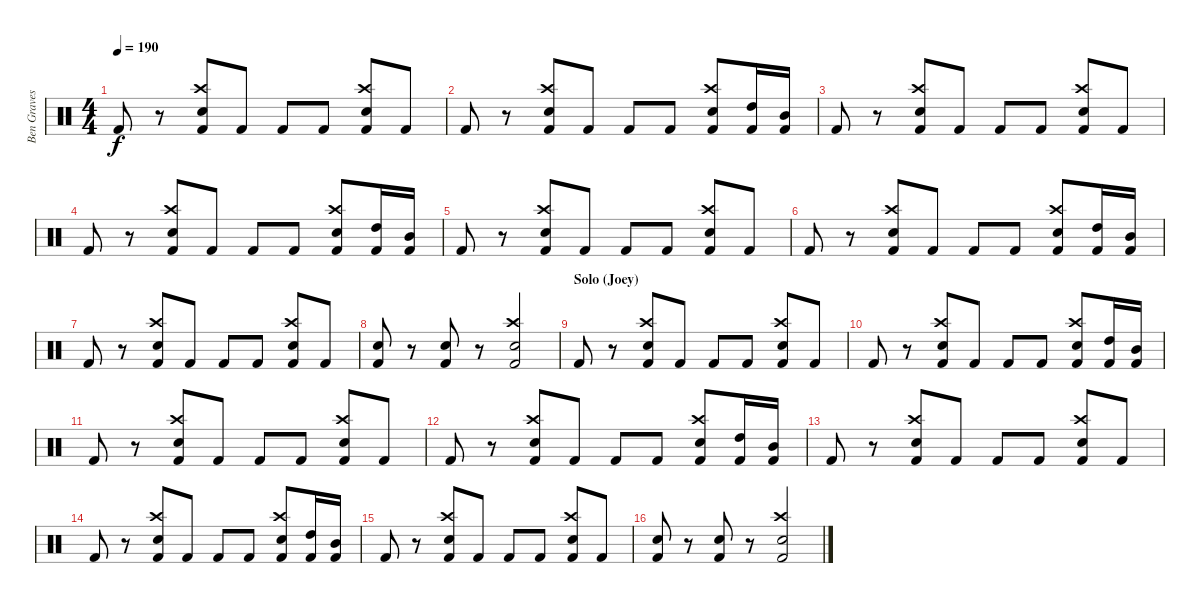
\track ("Ben Graves" "Ben Graves") {instrument percussion}
\staff {score}
\articulation defaults
\ts (4 4)
\tempo 190
\clef neutral
\ks c "Kick (hit) 2".8{dy f}
r.8 ("Crash high (hit)" "Electric Snare (hit)" "Kick (hit) 2").8 "Kick (hit) 2".8 "Kick (hit) 2".8 "Kick (hit) 2".8 ("Crash high (hit)" "Electric Snare (hit)" "Kick (hit) 2").8 "Kick (hit) 2".8 |
"Kick (hit) 2".8 r.8 ("Crash high (hit)" "Electric Snare (hit)" "Kick (hit) 2").8 "Kick (hit) 2".8 "Kick (hit) 2".8 "Kick (hit) 2".8 ("Crash high (hit)" "Electric Snare (hit)" "Kick (hit) 2").8 ("High Tom (hit)" "Kick (hit) 2").16 ("Mid Tom (hit)" "Kick (hit) 2").16 |
"Kick (hit) 2".8 r.8 ("Crash high (hit)" "Electric Snare (hit)" "Kick (hit) 2").8 "Kick (hit) 2".8 "Kick (hit) 2".8 "Kick (hit) 2".8 ("Crash high (hit)" "Electric Snare (hit)" "Kick (hit) 2").8 "Kick (hit) 2".8 |
"Kick (hit) 2".8 r.8 ("Crash high (hit)" "Electric Snare (hit)" "Kick (hit) 2").8 "Kick (hit) 2".8 "Kick (hit) 2".8 "Kick (hit) 2".8 ("Crash high (hit)" "Electric Snare (hit)" "Kick (hit) 2").8 ("High Tom (hit)" "Kick (hit) 2").16 ("Mid Tom (hit)" "Kick (hit) 2").16 |
"Kick (hit) 2".8 r.8 ("Crash high (hit)" "Electric Snare (hit)" "Kick (hit) 2").8 "Kick (hit) 2".8 "Kick (hit) 2".8 "Kick (hit) 2".8 ("Crash high (hit)" "Electric Snare (hit)" "Kick (hit) 2").8 "Kick (hit) 2".8 |
"Kick (hit) 2".8 r.8 ("Crash high (hit)" "Electric Snare (hit)" "Kick (hit) 2").8 "Kick (hit) 2".8 "Kick (hit) 2".8 "Kick (hit) 2".8 ("Crash high (hit)" "Electric Snare (hit)" "Kick (hit) 2").8 ("High Tom (hit)" "Kick (hit) 2").16 ("Mid Tom (hit)" "Kick (hit) 2").16 |
"Kick (hit) 2".8 r.8 ("Crash high (hit)" "Electric Snare (hit)" "Kick (hit) 2").8 "Kick (hit) 2".8 "Kick (hit) 2".8 "Kick (hit) 2".8 ("Crash high (hit)" "Electric Snare (hit)" "Kick (hit) 2").8 "Kick (hit) 2".8 |
("Electric Snare (hit)" "Kick (hit) 2").8 r.8 ("Electric Snare (hit)" "Kick (hit) 2").8 r.8 ("Crash high (hit)" "Electric Snare (hit)" "Kick (hit) 2").2 |
\section ("" "Solo (Joey)")
"Kick (hit) 2".8 r.8 ("Crash high (hit)" "Electric Snare (hit)" "Kick (hit) 2").8 "Kick (hit) 2".8 "Kick (hit) 2".8 "Kick (hit) 2".8 ("Crash high (hit)" "Electric Snare (hit)" "Kick (hit) 2").8 "Kick (hit) 2".8 |
"Kick (hit) 2".8 r.8 ("Crash high (hit)" "Electric Snare (hit)" "Kick (hit) 2").8 "Kick (hit) 2".8 "Kick (hit) 2".8 "Kick (hit) 2".8 ("Crash high (hit)" "Electric Snare (hit)" "Kick (hit) 2").8 ("High Tom (hit)" "Kick (hit) 2").16 ("Mid Tom (hit)" "Kick (hit) 2").16 |
"Kick (hit) 2".8 r.8 ("Crash high (hit)" "Electric Snare (hit)" "Kick (hit) 2").8 "Kick (hit) 2".8 "Kick (hit) 2".8 "Kick (hit) 2".8 ("Crash high (hit)" "Electric Snare (hit)" "Kick (hit) 2").8 "Kick (hit) 2".8 |
"Kick (hit) 2".8 r.8 ("Crash high (hit)" "Electric Snare (hit)" "Kick (hit) 2").8 "Kick (hit) 2".8 "Kick (hit) 2".8 "Kick (hit) 2".8 ("Crash high (hit)" "Electric Snare (hit)" "Kick (hit) 2").8 ("High Tom (hit)" "Kick (hit) 2").16 ("Mid Tom (hit)" "Kick (hit) 2").16 |
"Kick (hit) 2".8 r.8 ("Crash high (hit)" "Electric Snare (hit)" "Kick (hit) 2").8 "Kick (hit) 2".8 "Kick (hit) 2".8 "Kick (hit) 2".8 ("Crash high (hit)" "Electric Snare (hit)" "Kick (hit) 2").8 "Kick (hit) 2".8 |
"Kick (hit) 2".8 r.8 ("Crash high (hit)" "Electric Snare (hit)" "Kick (hit) 2").8 "Kick (hit) 2".8 "Kick (hit) 2".8 "Kick (hit) 2".8 ("Crash high (hit)" "Electric Snare (hit)" "Kick (hit) 2").8 ("High Tom (hit)" "Kick (hit) 2").16 ("Mid Tom (hit)" "Kick (hit) 2").16 |
"Kick (hit) 2".8 r.8 ("Crash high (hit)" "Electric Snare (hit)" "Kick (hit) 2").8 "Kick (hit) 2".8 "Kick (hit) 2".8 "Kick (hit) 2".8 ("Crash high (hit)" "Electric Snare (hit)" "Kick (hit) 2").8 "Kick (hit) 2".8 |
("Electric Snare (hit)" "Kick (hit) 2").8 r.8 ("Electric Snare (hit)" "Kick (hit) 2").8 r.8 ("Crash high (hit)" "Electric Snare (hit)" "Kick (hit) 2").2
